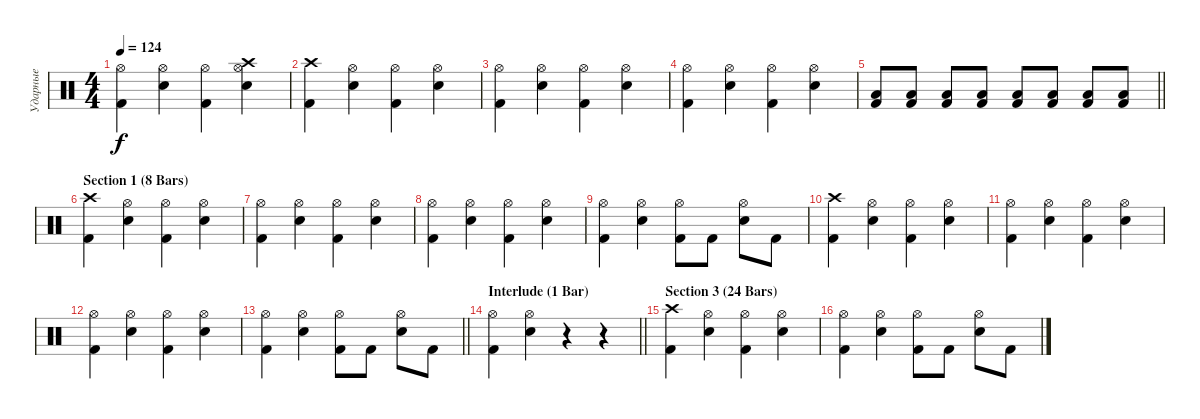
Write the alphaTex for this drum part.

\track ("Ударные" "Ударные") {instrument percussion}
\staff {score}
\articulation defaults
\ts (4 4)
\tempo 124
\clef neutral
\ks c
("Kick (hit) 2" "Hi-Hat (open)").4{dy f} ("Electric Snare (hit)" "Hi-Hat (open)").4 ("Kick (hit) 2" "Hi-Hat (open)").4 ("Electric Snare (hit)" "Hi-Hat (open)" "Crash high (hit)").4 |
("Crash high (hit)" "Kick (hit) 2").4 ("Electric Snare (hit)" "Hi-Hat (open)").4 ("Kick (hit) 2" "Hi-Hat (open)").4 ("Electric Snare (hit)" "Hi-Hat (open)").4 |
("Kick (hit) 2" "Hi-Hat (open)").4 ("Electric Snare (hit)" "Hi-Hat (open)").4 ("Kick (hit) 2" "Hi-Hat (open)").4 ("Electric Snare (hit)" "Hi-Hat (open)").4 |
("Kick (hit) 2" "Hi-Hat (open)").4 ("Electric Snare (hit)" "Hi-Hat (open)").4 ("Kick (hit) 2" "Hi-Hat (open)").4 ("Electric Snare (hit)" "Hi-Hat (open)").4 |
\barLineRight lightlight
("Low Floor Tom (hit)" "Kick (hit) 2").8 ("Low Floor Tom (hit)" "Kick (hit) 2").8 ("Low Floor Tom (hit)" "Kick (hit) 2").8 ("Low Floor Tom (hit)" "Kick (hit) 2").8 ("Low Floor Tom (hit)" "Kick (hit) 2").8 ("Low Floor Tom (hit)" "Kick (hit) 2").8 ("Low Floor Tom (hit)" "Kick (hit) 2").8 ("Low Floor Tom (hit)" "Kick (hit) 2").8 |
\section ("" "Section 1 (8 Bars)")
("Crash high (hit)" "Kick (hit) 2").4 ("Electric Snare (hit)" "Hi-Hat (open)").4 ("Kick (hit) 2" "Hi-Hat (open)").4 ("Electric Snare (hit)" "Hi-Hat (open)").4 |
("Kick (hit) 2" "Hi-Hat (open)").4 ("Electric Snare (hit)" "Hi-Hat (open)").4 ("Kick (hit) 2" "Hi-Hat (open)").4 ("Electric Snare (hit)" "Hi-Hat (open)").4 |
("Kick (hit) 2" "Hi-Hat (open)").4 ("Electric Snare (hit)" "Hi-Hat (open)").4 ("Kick (hit) 2" "Hi-Hat (open)").4 ("Electric Snare (hit)" "Hi-Hat (open)").4 |
("Kick (hit) 2" "Hi-Hat (open)").4 ("Electric Snare (hit)" "Hi-Hat (open)").4 ("Kick (hit) 2" "Hi-Hat (open)").8 "Kick (hit) 2".8 ("Electric Snare (hit)" "Hi-Hat (open)").8 "Kick (hit) 2".8 |
("Crash high (hit)" "Kick (hit) 2").4 ("Electric Snare (hit)" "Hi-Hat (open)").4 ("Kick (hit) 2" "Hi-Hat (open)").4 ("Electric Snare (hit)" "Hi-Hat (open)").4 |
("Kick (hit) 2" "Hi-Hat (open)").4 ("Electric Snare (hit)" "Hi-Hat (open)").4 ("Kick (hit) 2" "Hi-Hat (open)").4 ("Electric Snare (hit)" "Hi-Hat (open)").4 |
("Kick (hit) 2" "Hi-Hat (open)").4 ("Electric Snare (hit)" "Hi-Hat (open)").4 ("Kick (hit) 2" "Hi-Hat (open)").4 ("Electric Snare (hit)" "Hi-Hat (open)").4 |
\barLineRight lightlight
("Kick (hit) 2" "Hi-Hat (open)").4 ("Electric Snare (hit)" "Hi-Hat (open)").4 ("Kick (hit) 2" "Hi-Hat (open)").8 "Kick (hit) 2".8 ("Electric Snare (hit)" "Hi-Hat (open)").8 "Kick (hit) 2".8 |
\section ("" "Interlude (1 Bar)")
\barLineRight lightlight
("Kick (hit) 2" "Hi-Hat (open)").4 ("Electric Snare (hit)" "Hi-Hat (open)").4 r.4 r.4 |
\section ("" "Section 3 (24 Bars)")
("Crash high (hit)" "Kick (hit) 2").4 ("Electric Snare (hit)" "Hi-Hat (open)").4 ("Kick (hit) 2" "Hi-Hat (open)").4 ("Electric Snare (hit)" "Hi-Hat (open)").4 |
("Kick (hit) 2" "Hi-Hat (open)").4 ("Electric Snare (hit)" "Hi-Hat (open)").4 ("Kick (hit) 2" "Hi-Hat (open)").8 "Kick (hit) 2".8 ("Electric Snare (hit)" "Hi-Hat (open)").8 "Kick (hit) 2".8
